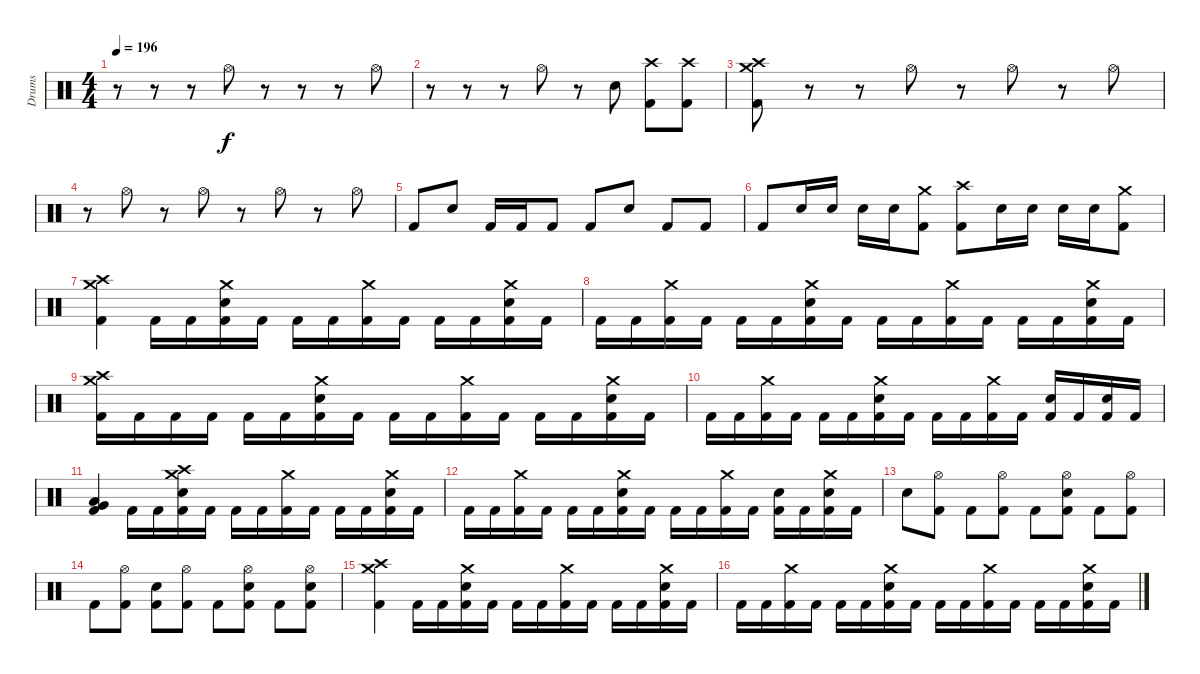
\track ("Drums" "Drums") {instrument percussion}
\staff {score}
\articulation defaults
\ts (4 4)
\tempo 196
\clef neutral
\ks c
r.8{dy f} r.8 r.8 "Hi-Hat (open)".8 r.8 r.8 r.8 "Hi-Hat (open)".8 |
r.8 r.8 r.8 "Hi-Hat (open)".8 r.8 "Snare (hit) 2".8 ("Crash high (hit)" "Kick (hit) 2").8 ("Crash high (hit)" "Kick (hit) 2").8 |
("Crash high (hit)" "Crash medium (hit)" "Kick (hit) 2").8 r.8 r.8 "Hi-Hat (open)".8 r.8 "Hi-Hat (open)".8 r.8 "Hi-Hat (open)".8 |
r.8 "Hi-Hat (open)".8 r.8 "Hi-Hat (open)".8 r.8 "Hi-Hat (open)".8 r.8 "Hi-Hat (open)".8 |
"Kick (hit) 2".8 "Snare (hit) 2".8 "Kick (hit) 2".16 "Kick (hit) 2".16 "Kick (hit) 2".8 "Kick (hit) 2".8 "Snare (hit) 2".8 "Kick (hit) 2".8 "Kick (hit) 2".8 |
"Kick (hit) 2".8 "Snare (hit) 2".16 "Snare (hit) 2".16 "Snare (hit) 2".16 "Snare (hit) 2".16 ("Crash medium (hit)" "Kick (hit) 2").8 ("Crash high (hit)" "Kick (hit) 2").8 "Snare (hit) 2".16 "Snare (hit) 2".16 "Snare (hit) 2".16 "Snare (hit) 2".16 ("Crash medium (hit)" "Kick (hit) 2").8 |
("Crash high (hit)" "Crash medium (hit)" "Kick (hit) 2").4 "Kick (hit) 2".16 "Kick (hit) 2".16 ("Crash medium (hit)" "Snare (hit) 2" "Kick (hit) 2").16 "Kick (hit) 2".16 "Kick (hit) 2".16 "Kick (hit) 2".16 ("Crash medium (hit)" "Kick (hit) 2").16 "Kick (hit) 2".16 "Kick (hit) 2".16 "Kick (hit) 2".16 ("Crash medium (hit)" "Snare (hit) 2" "Kick (hit) 2").16 "Kick (hit) 2".16 |
"Kick (hit) 2".16 "Kick (hit) 2".16 ("Crash medium (hit)" "Kick (hit) 2").16 "Kick (hit) 2".16 "Kick (hit) 2".16 "Kick (hit) 2".16 ("Crash medium (hit)" "Snare (hit) 2" "Kick (hit) 2").16 "Kick (hit) 2".16 "Kick (hit) 2".16 "Kick (hit) 2".16 ("Crash medium (hit)" "Kick (hit) 2").16 "Kick (hit) 2".16 "Kick (hit) 2".16 "Kick (hit) 2".16 ("Crash medium (hit)" "Snare (hit) 2" "Kick (hit) 2").16 "Kick (hit) 2".16 |
("Crash high (hit)" "Crash medium (hit)" "Kick (hit) 2").16 "Kick (hit) 2".16 "Kick (hit) 2".16 "Kick (hit) 2".16 "Kick (hit) 2".16 "Kick (hit) 2".16 ("Crash medium (hit)" "Snare (hit) 2" "Kick (hit) 2").16 "Kick (hit) 2".16 "Kick (hit) 2".16 "Kick (hit) 2".16 ("Crash medium (hit)" "Kick (hit) 2").16 "Kick (hit) 2".16 "Kick (hit) 2".16 "Kick (hit) 2".16 ("Crash medium (hit)" "Snare (hit) 2" "Kick (hit) 2").16 "Kick (hit) 2".16 |
"Kick (hit) 2".16 "Kick (hit) 2".16 ("Crash medium (hit)" "Kick (hit) 2").16 "Kick (hit) 2".16 "Kick (hit) 2".16 "Kick (hit) 2".16 ("Crash medium (hit)" "Snare (hit) 2" "Kick (hit) 2").16 "Kick (hit) 2".16 "Kick (hit) 2".16 "Kick (hit) 2".16 ("Crash medium (hit)" "Kick (hit) 2").16 "Kick (hit) 2".16 ("Snare (hit) 2" "Kick (hit) 2").16 "Kick (hit) 2".16 ("Snare (hit) 2" "Kick (hit) 2").16 "Kick (hit) 2".16 |
("Very Low Tom (hit)" "Low Floor Tom (hit)" "Kick (hit) 2").4 "Kick (hit) 2".16 "Kick (hit) 2".16 ("Crash high (hit)" "Crash medium (hit)" "Snare (hit) 2" "Kick (hit) 2").16 "Kick (hit) 2".16 "Kick (hit) 2".16 "Kick (hit) 2".16 ("Crash medium (hit)" "Kick (hit) 2").16 "Kick (hit) 2".16 "Kick (hit) 2".16 "Kick (hit) 2".16 ("Crash medium (hit)" "Snare (hit) 2" "Kick (hit) 2").16 "Kick (hit) 2".16 |
"Kick (hit) 2".16 "Kick (hit) 2".16 ("Crash medium (hit)" "Kick (hit) 2").16 "Kick (hit) 2".16 "Kick (hit) 2".16 "Kick (hit) 2".16 ("Crash medium (hit)" "Snare (hit) 2" "Kick (hit) 2").16 "Kick (hit) 2".16 "Kick (hit) 2".16 "Kick (hit) 2".16 ("Crash medium (hit)" "Kick (hit) 2").16 "Kick (hit) 2".16 ("Snare (hit) 2" "Kick (hit) 2").16 "Kick (hit) 2".16 ("Crash medium (hit)" "Snare (hit) 2" "Kick (hit) 2").16 "Kick (hit) 2".16 |
"Snare (hit) 2".8 ("Hi-Hat (open)" "Kick (hit) 2").8 "Kick (hit) 2".8 ("Hi-Hat (open)" "Kick (hit) 2").8 "Kick (hit) 2".8 ("Hi-Hat (open)" "Snare (hit) 2" "Kick (hit) 2").8 "Kick (hit) 2".8 ("Hi-Hat (open)" "Kick (hit) 2").8 |
"Kick (hit) 2".8 ("Hi-Hat (open)" "Kick (hit) 2").8 ("Snare (hit) 2" "Kick (hit) 2").8 ("Hi-Hat (open)" "Kick (hit) 2").8 "Kick (hit) 2".8 ("Hi-Hat (open)" "Snare (hit) 2" "Kick (hit) 2").8 "Kick (hit) 2".8 ("Hi-Hat (open)" "Snare (hit) 2" "Kick (hit) 2").8 |
("Crash high (hit)" "Crash medium (hit)" "Kick (hit) 2").4 "Kick (hit) 2".16 "Kick (hit) 2".16 ("Crash medium (hit)" "Snare (hit) 2" "Kick (hit) 2").16 "Kick (hit) 2".16 "Kick (hit) 2".16 "Kick (hit) 2".16 ("Crash medium (hit)" "Kick (hit) 2").16 "Kick (hit) 2".16 "Kick (hit) 2".16 "Kick (hit) 2".16 ("Crash medium (hit)" "Snare (hit) 2" "Kick (hit) 2").16 "Kick (hit) 2".16 |
"Kick (hit) 2".16 "Kick (hit) 2".16 ("Crash medium (hit)" "Kick (hit) 2").16 "Kick (hit) 2".16 "Kick (hit) 2".16 "Kick (hit) 2".16 ("Crash medium (hit)" "Snare (hit) 2" "Kick (hit) 2").16 "Kick (hit) 2".16 "Kick (hit) 2".16 "Kick (hit) 2".16 ("Crash medium (hit)" "Kick (hit) 2").16 "Kick (hit) 2".16 "Kick (hit) 2".16 "Kick (hit) 2".16 ("Crash medium (hit)" "Snare (hit) 2" "Kick (hit) 2").16 "Kick (hit) 2".16
